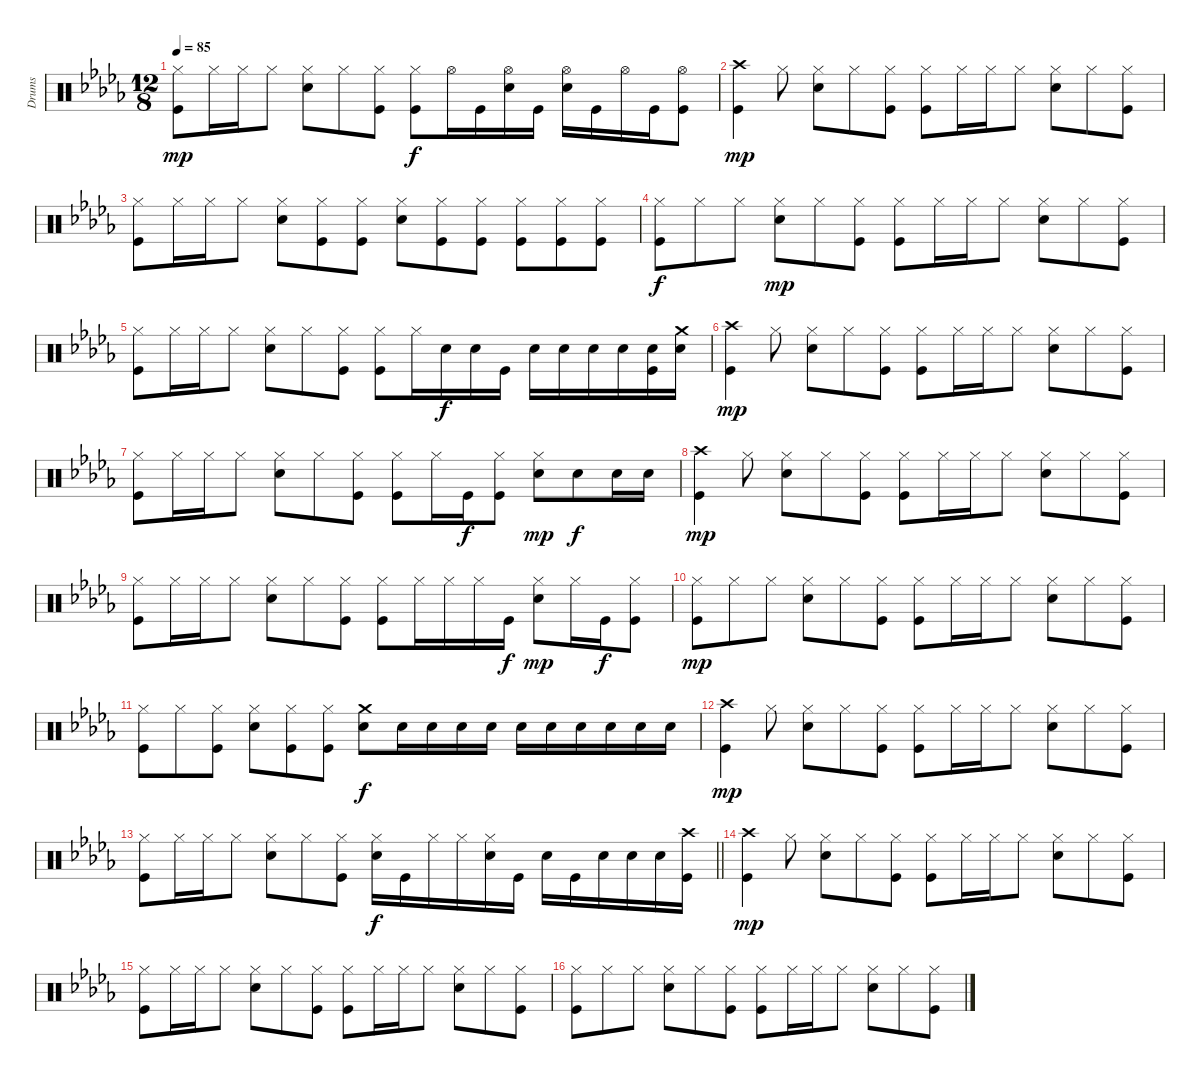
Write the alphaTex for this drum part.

\track ("Drums" "Drums") {instrument percussion}
\staff {score}
\articulation defaults
\ts (12 8)
\tempo 85
\clef neutral
\ks bbminor
("Hi-Hat (closed)" "Kick (hit)").8{dy mp} "Hi-Hat (closed)".16 "Hi-Hat (closed)".16 "Hi-Hat (closed)".8 ("Hi-Hat (closed)" "Snare (hit) 2").8 "Hi-Hat (closed)".8 ("Hi-Hat (closed)" "Kick (hit)").8 ("Hi-Hat (closed)" "Kick (hit)").8{dy f} "Hi-Hat (open)".16 "Kick (hit)".16 ("Hi-Hat (open)" "Snare (hit) 2").16 "Kick (hit)".16 ("Hi-Hat (open)" "Snare (hit) 2").16 "Kick (hit)".16 "Hi-Hat (open)".16 "Kick (hit)".16 ("Hi-Hat (open)" "Kick (hit)").8 |
("Crash high (hit)" "Kick (hit)").4{dy mp} "Hi-Hat (closed)".8 ("Hi-Hat (closed)" "Snare (hit) 2").8 "Hi-Hat (closed)".8 ("Hi-Hat (closed)" "Kick (hit)").8 ("Hi-Hat (closed)" "Kick (hit)").8 "Hi-Hat (closed)".16 "Hi-Hat (closed)".16 "Hi-Hat (closed)".8 ("Hi-Hat (closed)" "Snare (hit) 2").8 "Hi-Hat (closed)".8 ("Hi-Hat (closed)" "Kick (hit)").8 |
("Hi-Hat (closed)" "Kick (hit)").8 "Hi-Hat (closed)".16 "Hi-Hat (closed)".16 "Hi-Hat (closed)".8 ("Hi-Hat (closed)" "Snare (hit) 2").8 ("Hi-Hat (closed)" "Kick (hit)").8 ("Hi-Hat (closed)" "Kick (hit)").8 ("Hi-Hat (closed)" "Snare (hit) 2").8 ("Hi-Hat (closed)" "Kick (hit)").8 ("Hi-Hat (closed)" "Kick (hit)").8 ("Hi-Hat (closed)" "Kick (hit)").8 ("Hi-Hat (closed)" "Kick (hit)").8 ("Hi-Hat (closed)" "Kick (hit)").8 |
("Hi-Hat (closed)" "Kick (hit)").8{dy f} "Hi-Hat (closed)".8 "Hi-Hat (closed)".8 ("Hi-Hat (closed)" "Snare (hit) 2").8{dy mp} "Hi-Hat (closed)".8 ("Hi-Hat (closed)" "Kick (hit)").8 ("Hi-Hat (closed)" "Kick (hit)").8 "Hi-Hat (closed)".16 "Hi-Hat (closed)".16 "Hi-Hat (closed)".8 ("Hi-Hat (closed)" "Snare (hit) 2").8 "Hi-Hat (closed)".8 ("Hi-Hat (closed)" "Kick (hit)").8 |
("Hi-Hat (closed)" "Kick (hit)").8 "Hi-Hat (closed)".16 "Hi-Hat (closed)".16 "Hi-Hat (closed)".8 ("Hi-Hat (closed)" "Snare (hit) 2").8 "Hi-Hat (closed)".8 ("Hi-Hat (closed)" "Kick (hit)").8 ("Hi-Hat (closed)" "Kick (hit)").8 "Hi-Hat (closed)".16 "Snare (hit) 2".16{dy f} "Snare (hit) 2".16 "Kick (hit)".16 "Snare (hit) 2".16 "Snare (hit) 2".16 "Snare (hit) 2".16 "Snare (hit) 2".16 ("Snare (hit) 2" "Kick (hit)").16 ("Crash medium (hit)" "Snare (hit) 2").16 |
("Crash high (hit)" "Kick (hit)").4{dy mp} "Hi-Hat (closed)".8 ("Hi-Hat (closed)" "Snare (hit) 2").8 "Hi-Hat (closed)".8 ("Hi-Hat (closed)" "Kick (hit)").8 ("Hi-Hat (closed)" "Kick (hit)").8 "Hi-Hat (closed)".16 "Hi-Hat (closed)".16 "Hi-Hat (closed)".8 ("Hi-Hat (closed)" "Snare (hit) 2").8 "Hi-Hat (closed)".8 ("Hi-Hat (closed)" "Kick (hit)").8 |
("Hi-Hat (closed)" "Kick (hit)").8 "Hi-Hat (closed)".16 "Hi-Hat (closed)".16 "Hi-Hat (closed)".8 ("Hi-Hat (closed)" "Snare (hit) 2").8 "Hi-Hat (closed)".8 ("Hi-Hat (closed)" "Kick (hit)").8 ("Hi-Hat (closed)" "Kick (hit)").8 "Hi-Hat (closed)".16 "Kick (hit)".16{dy f} ("Hi-Hat (closed)" "Kick (hit)").8 ("Hi-Hat (closed)" "Snare (hit) 2").8{dy mp} "Snare (hit) 2".8{dy f} "Snare (hit) 2".16 "Snare (hit) 2".16 |
("Crash high (hit)" "Kick (hit)").4{dy mp} "Hi-Hat (closed)".8 ("Hi-Hat (closed)" "Snare (hit) 2").8 "Hi-Hat (closed)".8 ("Hi-Hat (closed)" "Kick (hit)").8 ("Hi-Hat (closed)" "Kick (hit)").8 "Hi-Hat (closed)".16 "Hi-Hat (closed)".16 "Hi-Hat (closed)".8 ("Hi-Hat (closed)" "Snare (hit) 2").8 "Hi-Hat (closed)".8 ("Hi-Hat (closed)" "Kick (hit)").8 |
("Hi-Hat (closed)" "Kick (hit)").8 "Hi-Hat (closed)".16 "Hi-Hat (closed)".16 "Hi-Hat (closed)".8 ("Hi-Hat (closed)" "Snare (hit) 2").8 "Hi-Hat (closed)".8 ("Hi-Hat (closed)" "Kick (hit)").8 ("Hi-Hat (closed)" "Kick (hit)").8 "Hi-Hat (closed)".16 "Hi-Hat (closed)".16 "Hi-Hat (closed)".16 "Kick (hit)".16{dy f} ("Hi-Hat (closed)" "Snare (hit) 2").8{dy mp} "Hi-Hat (closed)".16 "Kick (hit)".16{dy f} ("Hi-Hat (closed)" "Kick (hit)").8 |
("Hi-Hat (closed)" "Kick (hit)").8{dy mp} "Hi-Hat (closed)".8 "Hi-Hat (closed)".8 ("Hi-Hat (closed)" "Snare (hit) 2").8 "Hi-Hat (closed)".8 ("Hi-Hat (closed)" "Kick (hit)").8 ("Hi-Hat (closed)" "Kick (hit)").8 "Hi-Hat (closed)".16 "Hi-Hat (closed)".16 "Hi-Hat (closed)".8 ("Hi-Hat (closed)" "Snare (hit) 2").8 "Hi-Hat (closed)".8 ("Hi-Hat (closed)" "Kick (hit)").8 |
("Hi-Hat (closed)" "Kick (hit)").8 "Hi-Hat (closed)".8 ("Hi-Hat (closed)" "Kick (hit)").8 ("Hi-Hat (closed)" "Snare (hit) 2").8 ("Hi-Hat (closed)" "Kick (hit)").8 ("Hi-Hat (closed)" "Kick (hit)").8 ("Crash medium (hit)" "Snare (hit) 2").8{dy f} "Snare (hit) 2".16 "Snare (hit) 2".16 "Snare (hit) 2".16 "Snare (hit) 2".16 "Snare (hit) 2".16 "Snare (hit) 2".16 "Snare (hit) 2".16 "Snare (hit) 2".16 "Snare (hit) 2".16 "Snare (hit) 2".16 |
("Crash high (hit)" "Kick (hit)").4{dy mp} "Hi-Hat (closed)".8 ("Hi-Hat (closed)" "Snare (hit) 2").8 "Hi-Hat (closed)".8 ("Hi-Hat (closed)" "Kick (hit)").8 ("Hi-Hat (closed)" "Kick (hit)").8 "Hi-Hat (closed)".16 "Hi-Hat (closed)".16 "Hi-Hat (closed)".8 ("Hi-Hat (closed)" "Snare (hit) 2").8 "Hi-Hat (closed)".8 ("Hi-Hat (closed)" "Kick (hit)").8 |
\barLineRight lightlight
("Hi-Hat (closed)" "Kick (hit)").8 "Hi-Hat (closed)".16 "Hi-Hat (closed)".16 "Hi-Hat (closed)".8 ("Hi-Hat (closed)" "Snare (hit) 2").8 "Hi-Hat (closed)".8 ("Hi-Hat (closed)" "Kick (hit)").8 ("Hi-Hat (closed)" "Snare (hit) 2").16{dy f} "Kick (hit)".16 "Hi-Hat (closed)".16 "Hi-Hat (closed)".16 ("Hi-Hat (closed)" "Snare (hit) 2").16 "Kick (hit)".16 "Snare (hit) 2".16 "Kick (hit)".16 "Snare (hit) 2".16 "Snare (hit) 2".16 "Snare (hit) 2".16 ("Crash high (hit)" "Kick (hit)").16 |
("Crash high (hit)" "Kick (hit)").4{dy mp} "Hi-Hat (closed)".8 ("Hi-Hat (closed)" "Snare (hit) 2").8 "Hi-Hat (closed)".8 ("Hi-Hat (closed)" "Kick (hit)").8 ("Hi-Hat (closed)" "Kick (hit)").8 "Hi-Hat (closed)".16 "Hi-Hat (closed)".16 "Hi-Hat (closed)".8 ("Hi-Hat (closed)" "Snare (hit) 2").8 "Hi-Hat (closed)".8 ("Hi-Hat (closed)" "Kick (hit)").8 |
("Hi-Hat (closed)" "Kick (hit)").8 "Hi-Hat (closed)".16 "Hi-Hat (closed)".16 "Hi-Hat (closed)".8 ("Hi-Hat (closed)" "Snare (hit) 2").8 "Hi-Hat (closed)".8 ("Hi-Hat (closed)" "Kick (hit)").8 ("Hi-Hat (closed)" "Kick (hit)").8 "Hi-Hat (closed)".16 "Hi-Hat (closed)".16 "Hi-Hat (closed)".8 ("Hi-Hat (closed)" "Snare (hit) 2").8 "Hi-Hat (closed)".8 ("Hi-Hat (closed)" "Kick (hit)").8 |
("Hi-Hat (closed)" "Kick (hit)").8 "Hi-Hat (closed)".8 "Hi-Hat (closed)".8 ("Hi-Hat (closed)" "Snare (hit) 2").8 "Hi-Hat (closed)".8 ("Hi-Hat (closed)" "Kick (hit)").8 ("Hi-Hat (closed)" "Kick (hit)").8 "Hi-Hat (closed)".16 "Hi-Hat (closed)".16 "Hi-Hat (closed)".8 ("Hi-Hat (closed)" "Snare (hit) 2").8 "Hi-Hat (closed)".8 ("Hi-Hat (closed)" "Kick (hit)").8
